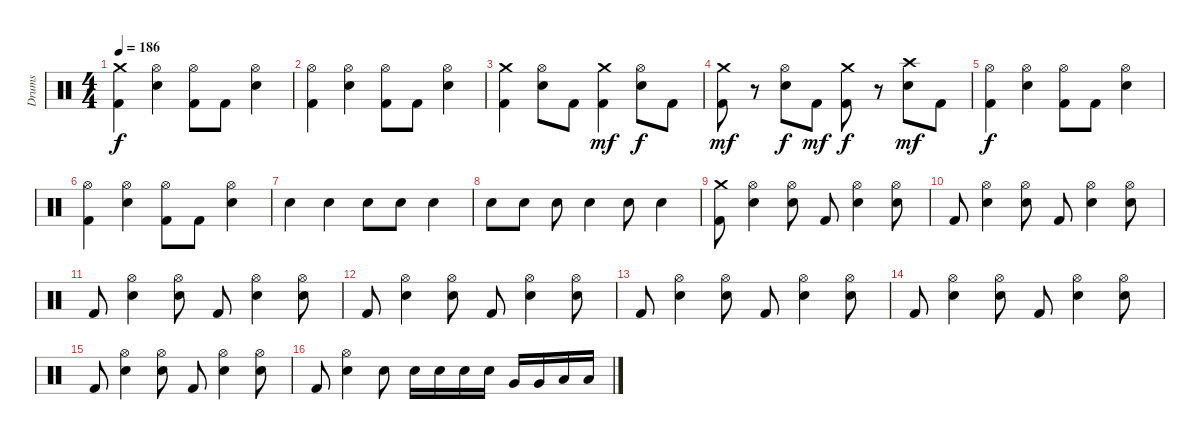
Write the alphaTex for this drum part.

\track ("Drums" "Drums") {instrument percussion}
\staff
\articulation defaults
\ts (4 4)
\tempo 186
\clef neutral
\ks c
("Crash medium (hit)" "Kick (hit) 2").4{dy f} ("Hi-Hat (open)" "Electric Snare (hit)").4 ("Hi-Hat (open)" "Kick (hit) 2").8 "Kick (hit) 2".8 ("Hi-Hat (open)" "Electric Snare (hit)").4 |
("Hi-Hat (open)" "Kick (hit) 2").4 ("Hi-Hat (open)" "Electric Snare (hit)").4 ("Hi-Hat (open)" "Kick (hit) 2").8 "Kick (hit) 2".8 ("Hi-Hat (open)" "Electric Snare (hit)").4 |
("Crash medium (hit)" "Kick (hit) 2").4 ("Hi-Hat (open)" "Electric Snare (hit)").8 "Kick (hit) 2".8 ("Crash medium (hit)" "Kick (hit) 2").4{dy mf} ("Hi-Hat (open)" "Electric Snare (hit)").8{dy f} "Kick (hit) 2".8 |
("Crash medium (hit)" "Kick (hit) 2").8{dy mf} r.8 ("Hi-Hat (open)" "Electric Snare (hit)").8{dy f} "Kick (hit) 2".8{dy mf} ("Crash medium (hit)" "Kick (hit) 2").8{dy f} r.8 ("Crash high (hit)" "Electric Snare (hit)").8{dy mf} "Kick (hit) 2".8 |
("Hi-Hat (open)" "Kick (hit) 2").4{dy f} ("Hi-Hat (open)" "Electric Snare (hit)").4 ("Hi-Hat (open)" "Kick (hit) 2").8 "Kick (hit) 2".8 ("Hi-Hat (open)" "Electric Snare (hit)").4 |
("Hi-Hat (open)" "Kick (hit) 2").4 ("Hi-Hat (open)" "Electric Snare (hit)").4 ("Hi-Hat (open)" "Kick (hit) 2").8 "Kick (hit) 2".8 ("Hi-Hat (open)" "Electric Snare (hit)").4 |
"Electric Snare (hit)".4 "Electric Snare (hit)".4 "Electric Snare (hit)".8 "Electric Snare (hit)".8 "Electric Snare (hit)".4 |
"Electric Snare (hit)".8 "Electric Snare (hit)".8 "Electric Snare (hit)".8 "Electric Snare (hit)".4 "Electric Snare (hit)".8 "Electric Snare (hit)".4 |
("Crash medium (hit)" "Kick (hit) 2").8 ("Hi-Hat (open)" "Electric Snare (hit)").4 ("Hi-Hat (open)" "Electric Snare (hit)").8 "Kick (hit) 2".8 ("Hi-Hat (open)" "Electric Snare (hit)").4 ("Hi-Hat (open)" "Electric Snare (hit)").8 |
"Kick (hit) 2".8 ("Hi-Hat (open)" "Electric Snare (hit)").4 ("Hi-Hat (open)" "Electric Snare (hit)").8 "Kick (hit) 2".8 ("Hi-Hat (open)" "Electric Snare (hit)").4 ("Hi-Hat (open)" "Electric Snare (hit)").8 |
"Kick (hit) 2".8 ("Hi-Hat (open)" "Electric Snare (hit)").4 ("Hi-Hat (open)" "Electric Snare (hit)").8 "Kick (hit) 2".8 ("Hi-Hat (open)" "Electric Snare (hit)").4 ("Hi-Hat (open)" "Electric Snare (hit)").8 |
"Kick (hit) 2".8 ("Hi-Hat (open)" "Electric Snare (hit)").4 ("Hi-Hat (open)" "Electric Snare (hit)").8 "Kick (hit) 2".8 ("Hi-Hat (open)" "Electric Snare (hit)").4 ("Hi-Hat (open)" "Electric Snare (hit)").8 |
"Kick (hit) 2".8 ("Hi-Hat (open)" "Electric Snare (hit)").4 ("Hi-Hat (open)" "Electric Snare (hit)").8 "Kick (hit) 2".8 ("Hi-Hat (open)" "Electric Snare (hit)").4 ("Hi-Hat (open)" "Electric Snare (hit)").8 |
"Kick (hit) 2".8 ("Hi-Hat (open)" "Electric Snare (hit)").4 ("Hi-Hat (open)" "Electric Snare (hit)").8 "Kick (hit) 2".8 ("Hi-Hat (open)" "Electric Snare (hit)").4 ("Hi-Hat (open)" "Electric Snare (hit)").8 |
"Kick (hit) 2".8 ("Hi-Hat (open)" "Electric Snare (hit)").4 ("Hi-Hat (open)" "Electric Snare (hit)").8 "Kick (hit) 2".8 ("Hi-Hat (open)" "Electric Snare (hit)").4 ("Hi-Hat (open)" "Electric Snare (hit)").8 |
"Kick (hit) 2".8 ("Hi-Hat (open)" "Electric Snare (hit)").4 "Electric Snare (hit)".8 "Electric Snare (hit)".16 "Electric Snare (hit)".16 "Electric Snare (hit)".16 "Electric Snare (hit)".16 "Very Low Tom (hit)".16 "Very Low Tom (hit)".16 "Low Floor Tom (hit)".16 "Low Floor Tom (hit)".16
